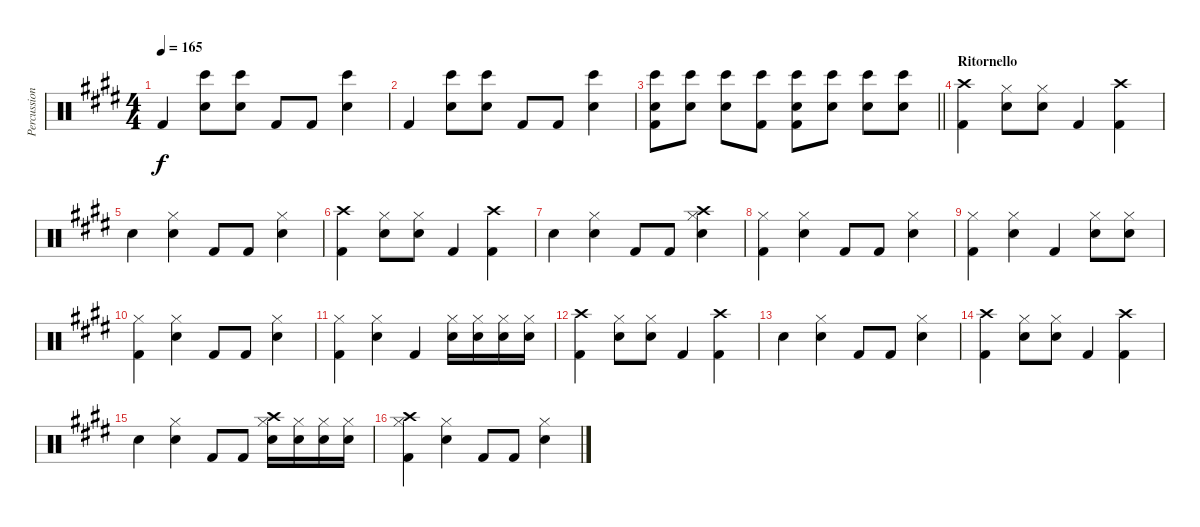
\track ("Percussioni" "Percussion") {instrument percussion}
\staff {score}
\articulation defaults
\ts (4 4)
\tempo 165
\clef neutral
\ks e "Kick (hit) 2".4{dy f}
("Snare (hit) 2" "Bongo High (hit)").8 ("Snare (hit) 2" "Bongo High (hit)").8 "Kick (hit) 2".8 "Kick (hit) 2".8 ("Snare (hit) 2" "Bongo High (hit)").4 |
"Kick (hit) 2".4 ("Snare (hit) 2" "Bongo High (hit)").8 ("Snare (hit) 2" "Bongo High (hit)").8 "Kick (hit) 2".8 "Kick (hit) 2".8 ("Snare (hit) 2" "Bongo High (hit)").4 |
\barLineRight lightlight
("Kick (hit) 2" "Snare (hit) 2" "Bongo High (hit)").8{volume 12} ("Snare (hit) 2" "Bongo High (hit)").8 ("Snare (hit) 2" "Bongo High (hit)").8 ("Kick (hit) 2" "Bongo High (hit)").8 ("Kick (hit) 2" "Snare (hit) 2" "Bongo High (hit)").8 ("Snare (hit) 2" "Bongo High (hit)").8 ("Snare (hit) 2" "Bongo High (hit)").8 ("Snare (hit) 2" "Bongo High (hit)").8 |
\section ("" "Ritornello")
("Crash high (hit)" "Kick (hit) 2").4 ("Snare (hit) 2" "Hi-Hat (closed)").8 ("Snare (hit) 2" "Hi-Hat (closed)").8 "Kick (hit) 2".4 ("Crash high (hit)" "Kick (hit) 2").4 |
"Electric Snare (hit)".4 ("Snare (hit) 2" "Hi-Hat (closed)").4 "Kick (hit) 2".8 "Kick (hit) 2".8 ("Snare (hit) 2" "Hi-Hat (closed)").4 |
("Crash high (hit)" "Kick (hit) 2").4 ("Snare (hit) 2" "Hi-Hat (closed)").8 ("Snare (hit) 2" "Hi-Hat (closed)").8 "Kick (hit) 2".4 ("Crash high (hit)" "Kick (hit) 2").4 |
"Electric Snare (hit)".4 ("Snare (hit) 2" "Hi-Hat (closed)").4 "Kick (hit) 2".8 "Kick (hit) 2".8 ("Snare (hit) 2" "Crash high (hit)" "Hi-Hat (closed)").4 |
("Kick (hit) 2" "Hi-Hat (closed)").4 ("Snare (hit) 2" "Hi-Hat (closed)").4 "Kick (hit) 2".8 "Kick (hit) 2".8 ("Snare (hit) 2" "Hi-Hat (closed)").4 |
("Kick (hit) 2" "Hi-Hat (closed)").4 ("Snare (hit) 2" "Hi-Hat (closed)").4 "Kick (hit) 2".4 ("Snare (hit) 2" "Hi-Hat (closed)").8 ("Snare (hit) 2" "Hi-Hat (closed)").8 |
("Kick (hit) 2" "Hi-Hat (closed)").4 ("Snare (hit) 2" "Hi-Hat (closed)").4 "Kick (hit) 2".8 "Kick (hit) 2".8 ("Snare (hit) 2" "Hi-Hat (closed)").4 |
("Kick (hit) 2" "Hi-Hat (closed)").4 ("Snare (hit) 2" "Hi-Hat (closed)").4 "Kick (hit) 2".4 ("Snare (hit) 2" "Hi-Hat (closed)").16 ("Snare (hit) 2" "Hi-Hat (closed)").16 ("Snare (hit) 2" "Hi-Hat (closed)").16 ("Snare (hit) 2" "Hi-Hat (closed)").16 |
("Crash high (hit)" "Kick (hit) 2").4 ("Snare (hit) 2" "Hi-Hat (closed)").8 ("Snare (hit) 2" "Hi-Hat (closed)").8 "Kick (hit) 2".4 ("Crash high (hit)" "Kick (hit) 2").4 |
"Electric Snare (hit)".4 ("Snare (hit) 2" "Hi-Hat (closed)").4 "Kick (hit) 2".8 "Kick (hit) 2".8 ("Snare (hit) 2" "Hi-Hat (closed)").4 |
("Crash high (hit)" "Kick (hit) 2").4 ("Snare (hit) 2" "Hi-Hat (closed)").8 ("Snare (hit) 2" "Hi-Hat (closed)").8 "Kick (hit) 2".4 ("Crash high (hit)" "Kick (hit) 2").4 |
"Electric Snare (hit)".4 ("Snare (hit) 2" "Hi-Hat (closed)").4 "Kick (hit) 2".8 "Kick (hit) 2".8 ("Snare (hit) 2" "Crash high (hit)" "Hi-Hat (closed)").16 ("Snare (hit) 2" "Hi-Hat (closed)").16 ("Snare (hit) 2" "Hi-Hat (closed)").16 ("Snare (hit) 2" "Hi-Hat (closed)").16 |
("Crash high (hit)" "Kick (hit) 2" "Hi-Hat (closed)").4 ("Snare (hit) 2" "Hi-Hat (closed)").4 "Kick (hit) 2".8 "Kick (hit) 2".8 ("Snare (hit) 2" "Hi-Hat (closed)").4
